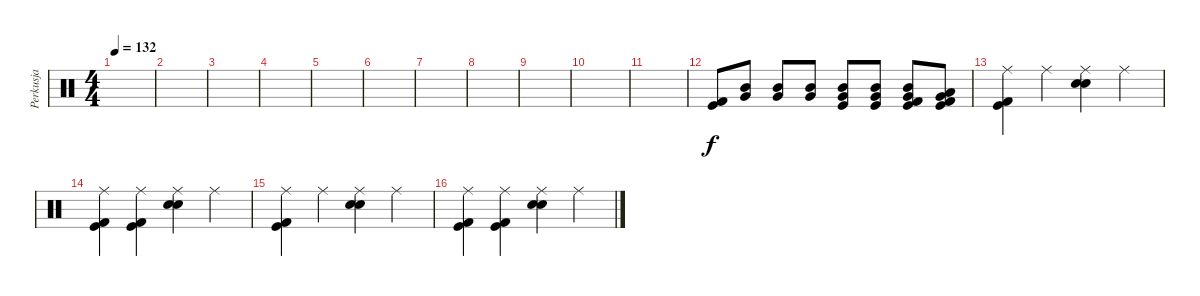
\track ("Perkusja" "Perkusja") {instrument percussion}
\staff {score}
\articulation defaults
\ts (4 4)
\tempo 132
\clef neutral
\ks c
|
|
|
|
|
|
|
|
|
|
|
("Kick (hit) 2" "Kick (hit)").8 ("Mid Tom (hit)" "Very Low Tom (hit)").8 ("Mid Tom (hit)" "Very Low Tom (hit)").8 ("Mid Tom (hit)" "Very Low Tom (hit)").8 ("Kick (hit)" "Mid Tom (hit)" "Very Low Tom (hit)").8 ("Kick (hit)" "Mid Tom (hit)" "Very Low Tom (hit)").8 ("Kick (hit) 2" "Kick (hit)" "Mid Tom (hit)" "Very Low Tom (hit)").8 ("Kick (hit) 2" "Kick (hit)" "Low Tom (hit)" "Very Low Tom (hit)").8 |
("Kick (hit)" "Kick (hit) 2" "Ride (middle)").4 "Ride (middle)".4 ("Snare (hit) 2" "Electric Snare (hit)" "Ride (middle)").4 "Ride (middle)".4 |
("Kick (hit)" "Kick (hit) 2" "Ride (middle)").4 ("Kick (hit)" "Kick (hit) 2" "Ride (middle)").4 ("Snare (hit) 2" "Electric Snare (hit)" "Ride (middle)").4 "Ride (middle)".4 |
("Kick (hit)" "Kick (hit) 2" "Ride (middle)").4 "Ride (middle)".4 ("Snare (hit) 2" "Electric Snare (hit)" "Ride (middle)").4 "Ride (middle)".4 |
("Kick (hit)" "Kick (hit) 2" "Ride (middle)").4 ("Kick (hit)" "Kick (hit) 2" "Ride (middle)").4 ("Snare (hit) 2" "Electric Snare (hit)" "Ride (middle)").4 "Ride (middle)".4
